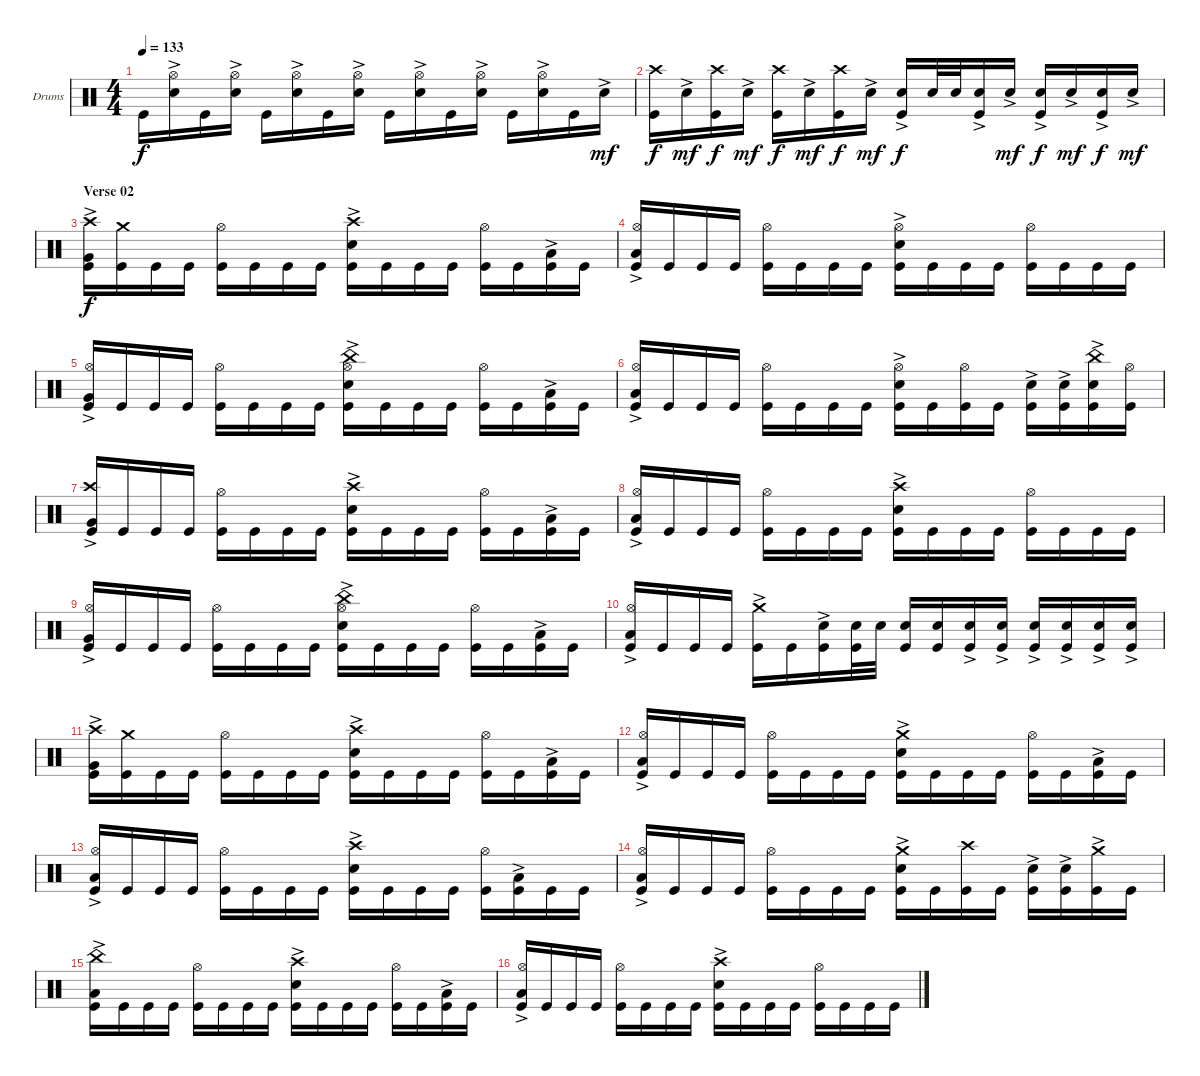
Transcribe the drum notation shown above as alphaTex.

\bracketExtendMode groupsimilarinstruments
\firstSystemTrackNameOrientation horizontal
\otherSystemsTrackNameOrientation horizontal
\track ("Drumkit" "Drums") {instrument percussion}
\staff {score}
\articulation defaults
\ts (4 4)
\tempo 133
\clef neutral
\ks c "Kick (hit)".16{dy f}
("Snare (hit) 2"{ac} "Hi-Hat (open)").16 "Kick (hit)".16 ("Snare (hit) 2"{ac} "Hi-Hat (open)").16 "Kick (hit)".16 ("Snare (hit) 2"{ac} "Hi-Hat (open)").16 "Kick (hit)".16 ("Snare (hit) 2"{ac} "Hi-Hat (open)").16 "Kick (hit)".16 ("Snare (hit) 2"{ac} "Hi-Hat (open)").16 "Kick (hit)".16 ("Snare (hit) 2"{ac} "Hi-Hat (open)").16 "Kick (hit)".16 ("Snare (hit) 2"{ac} "Hi-Hat (open)").16 "Kick (hit)".16 "Snare (hit) 2"{ac}.16{dy mf} |
("Kick (hit)" "Crash high (hit)").16{dy f} "Snare (hit) 2"{ac}.16{dy mf} ("Kick (hit)" "Crash high (hit)").16{dy f} "Snare (hit) 2"{ac}.16{dy mf} ("Kick (hit)" "Crash high (hit)").16{dy f} "Snare (hit) 2"{ac}.16{dy mf} ("Kick (hit)" "Crash high (hit)").16{dy f} "Snare (hit) 2"{ac}.16{dy mf} ("Kick (hit)" "Snare (hit) 2"{ac}).16{dy f} "Snare (hit) 2".32 "Snare (hit) 2".32 ("Kick (hit)" "Snare (hit) 2"{ac}).16 "Snare (hit) 2"{ac}.16{dy mf} ("Kick (hit)" "Snare (hit) 2"{ac}).16{dy f} "Snare (hit) 2"{ac}.16{dy mf} ("Kick (hit)" "Snare (hit) 2"{ac}).16{dy f} "Snare (hit) 2"{ac}.16{dy mf} |
\section ("" "Verse 02")
("Kick (hit)" "Crash high (hit)" "Very Low Tom (hit)"{ac}).16{dy f} ("Kick (hit)" "Crash medium (hit)").16 "Kick (hit)".16 "Kick (hit)".16 ("Kick (hit)" "Hi-Hat (open)").16 "Kick (hit)".16 "Kick (hit)".16 "Kick (hit)".16 ("Kick (hit)" "Snare (hit) 2"{ac} "Crash high (hit)").16 "Kick (hit)".16 "Kick (hit)".16 "Kick (hit)".16 ("Kick (hit)" "Hi-Hat (open)").16 "Kick (hit)".16 ("Kick (hit)" "Low Tom (hit)"{ac}).16 "Kick (hit)".16 |
("Kick (hit)" "Low Tom (hit)"{ac} "Hi-Hat (open)").16 "Kick (hit)".16 "Kick (hit)".16 "Kick (hit)".16 ("Kick (hit)" "Hi-Hat (open)").16 "Kick (hit)".16 "Kick (hit)".16 "Kick (hit)".16 ("Kick (hit)" "Hi-Hat (open)" "Snare (hit) 2"{ac}).16 "Kick (hit)".16 "Kick (hit)".16 "Kick (hit)".16 ("Kick (hit)" "Hi-Hat (open)").16 "Kick (hit)".16 "Kick (hit)".16 "Kick (hit)".16 |
("Kick (hit)" "Very Low Tom (hit)"{ac} "Hi-Hat (open)").16 "Kick (hit)".16 "Kick (hit)".16 "Kick (hit)".16 ("Kick (hit)" "Hi-Hat (open)").16 "Kick (hit)".16 "Kick (hit)".16 "Kick (hit)".16 ("Kick (hit)" "Snare (hit) 2"{ac} "Hi-Hat (open)" "China (hit)").16 "Kick (hit)".16 "Kick (hit)".16 "Kick (hit)".16 ("Kick (hit)" "Hi-Hat (open)").16 "Kick (hit)".16 ("Kick (hit)" "Low Tom (hit)"{ac}).16 "Kick (hit)".16 |
("Kick (hit)" "Low Tom (hit)"{ac} "Hi-Hat (open)").16 "Kick (hit)".16 "Kick (hit)".16 "Kick (hit)".16 ("Kick (hit)" "Hi-Hat (open)").16 "Kick (hit)".16 "Kick (hit)".16 "Kick (hit)".16 ("Kick (hit)" "Snare (hit) 2"{ac} "Hi-Hat (open)").16 "Kick (hit)".16 ("Kick (hit)" "Hi-Hat (open)").16 "Kick (hit)".16 ("Kick (hit)" "Snare (hit) 2"{ac}).16 ("Kick (hit)" "Snare (hit) 2"{ac}).16 ("Kick (hit)" "Snare (hit) 2"{ac} "China (hit)"{ac}).16 ("Kick (hit)" "Hi-Hat (open)").16 |
("Kick (hit)" "Crash high (hit)" "Very Low Tom (hit)"{ac}).16 "Kick (hit)".16 "Kick (hit)".16 "Kick (hit)".16 ("Kick (hit)" "Hi-Hat (open)").16 "Kick (hit)".16 "Kick (hit)".16 "Kick (hit)".16 ("Kick (hit)" "Snare (hit) 2"{ac} "Crash high (hit)").16 "Kick (hit)".16 "Kick (hit)".16 "Kick (hit)".16 ("Kick (hit)" "Hi-Hat (open)").16 "Kick (hit)".16 ("Kick (hit)" "Low Tom (hit)"{ac}).16 "Kick (hit)".16 |
("Kick (hit)" "Low Tom (hit)"{ac} "Hi-Hat (open)").16 "Kick (hit)".16 "Kick (hit)".16 "Kick (hit)".16 ("Kick (hit)" "Hi-Hat (open)").16 "Kick (hit)".16 "Kick (hit)".16 "Kick (hit)".16 ("Kick (hit)" "Snare (hit) 2"{ac} "Crash high (hit)").16 "Kick (hit)".16 "Kick (hit)".16 "Kick (hit)".16 ("Kick (hit)" "Hi-Hat (open)").16 "Kick (hit)".16 "Kick (hit)".16 "Kick (hit)".16 |
("Kick (hit)" "Very Low Tom (hit)"{ac} "Hi-Hat (open)").16 "Kick (hit)".16 "Kick (hit)".16 "Kick (hit)".16 ("Kick (hit)" "Hi-Hat (open)").16 "Kick (hit)".16 "Kick (hit)".16 "Kick (hit)".16 ("Kick (hit)" "Snare (hit) 2"{ac} "Hi-Hat (open)" "China (hit)").16 "Kick (hit)".16 "Kick (hit)".16 "Kick (hit)".16 ("Kick (hit)" "Hi-Hat (open)").16 "Kick (hit)".16 ("Kick (hit)" "Low Tom (hit)"{ac}).16 "Kick (hit)".16 |
("Kick (hit)" "Hi-Hat (open)" "Low Tom (hit)"{ac}).16 "Kick (hit)".16 "Kick (hit)".16 "Kick (hit)".16 ("Kick (hit)" "Crash medium (hit)"{ac}).16 "Kick (hit)".16 ("Kick (hit)" "Snare (hit) 2"{ac}).16 ("Kick (hit)" "Snare (hit) 2").32 "Snare (hit) 2".32 ("Kick (hit)" "Snare (hit) 2").16 ("Kick (hit)" "Snare (hit) 2").16 ("Kick (hit)" "Snare (hit) 2"{ac}).16 ("Kick (hit)" "Snare (hit) 2"{ac}).16 ("Kick (hit)" "Snare (hit) 2"{ac}).16 ("Kick (hit)" "Snare (hit) 2"{ac}).16 ("Kick (hit)" "Snare (hit) 2"{ac}).16 ("Kick (hit)" "Snare (hit) 2"{ac}).16 |
("Kick (hit)" "Crash high (hit)" "Very Low Tom (hit)"{ac}).16 ("Kick (hit)" "Crash medium (hit)").16 "Kick (hit)".16 "Kick (hit)".16 ("Kick (hit)" "Hi-Hat (open)").16 "Kick (hit)".16 "Kick (hit)".16 "Kick (hit)".16 ("Kick (hit)" "Snare (hit) 2"{ac} "Crash high (hit)").16 "Kick (hit)".16 "Kick (hit)".16 "Kick (hit)".16 ("Kick (hit)" "Hi-Hat (open)").16 "Kick (hit)".16 ("Kick (hit)" "Low Tom (hit)"{ac}).16 "Kick (hit)".16 |
("Kick (hit)" "Low Tom (hit)"{ac} "Hi-Hat (open)").16 "Kick (hit)".16 "Kick (hit)".16 "Kick (hit)".16 ("Kick (hit)" "Hi-Hat (open)").16 "Kick (hit)".16 "Kick (hit)".16 "Kick (hit)".16 ("Kick (hit)" "Snare (hit) 2"{ac} "Crash medium (hit)").16 "Kick (hit)".16 "Kick (hit)".16 "Kick (hit)".16 ("Kick (hit)" "Hi-Hat (open)").16 "Kick (hit)".16 ("Kick (hit)" "Low Tom (hit)"{ac}).16 "Kick (hit)".16 |
("Kick (hit)" "Hi-Hat (open)" "Low Tom (hit)"{ac}).16 "Kick (hit)".16 "Kick (hit)".16 "Kick (hit)".16 ("Kick (hit)" "Hi-Hat (open)").16 "Kick (hit)".16 "Kick (hit)".16 "Kick (hit)".16 ("Kick (hit)" "Crash high (hit)" "Snare (hit) 2"{ac}).16 "Kick (hit)".16 "Kick (hit)".16 "Kick (hit)".16 ("Kick (hit)" "Hi-Hat (open)").16 ("Kick (hit)" "Low Tom (hit)"{ac}).16 "Kick (hit)".16 "Kick (hit)".16 |
("Kick (hit)" "Hi-Hat (open)" "Low Tom (hit)"{ac}).16 "Kick (hit)".16 "Kick (hit)".16 "Kick (hit)".16 ("Kick (hit)" "Hi-Hat (open)").16 "Kick (hit)".16 "Kick (hit)".16 "Kick (hit)".16 ("Kick (hit)" "Crash medium (hit)" "Snare (hit) 2"{ac}).16 "Kick (hit)".16 ("Kick (hit)" "Crash high (hit)").16 "Kick (hit)".16 ("Kick (hit)" "Snare (hit) 2"{ac}).16 ("Kick (hit)" "Snare (hit) 2"{ac}).16 ("Kick (hit)" "Crash medium (hit)"{ac}).16 "Kick (hit)".16 |
("Kick (hit)" "China (hit)"{ac} "Low Tom (hit)"{ac}).16 "Kick (hit)".16 "Kick (hit)".16 "Kick (hit)".16 ("Kick (hit)" "Hi-Hat (open)").16 "Kick (hit)".16 "Kick (hit)".16 "Kick (hit)".16 ("Kick (hit)" "Crash high (hit)" "Snare (hit) 2"{ac}).16 "Kick (hit)".16 "Kick (hit)".16 "Kick (hit)".16 ("Kick (hit)" "Hi-Hat (open)").16 "Kick (hit)".16 ("Kick (hit)" "Low Tom (hit)"{ac}).16 "Kick (hit)".16 |
("Kick (hit)" "Hi-Hat (open)" "Low Tom (hit)"{ac}).16 "Kick (hit)".16 "Kick (hit)".16 "Kick (hit)".16 ("Kick (hit)" "Hi-Hat (open)").16 "Kick (hit)".16 "Kick (hit)".16 "Kick (hit)".16 ("Kick (hit)" "Crash high (hit)" "Snare (hit) 2"{ac}).16 "Kick (hit)".16 "Kick (hit)".16 "Kick (hit)".16 ("Kick (hit)" "Hi-Hat (open)").16 "Kick (hit)".16 "Kick (hit)".16 "Kick (hit)".16
